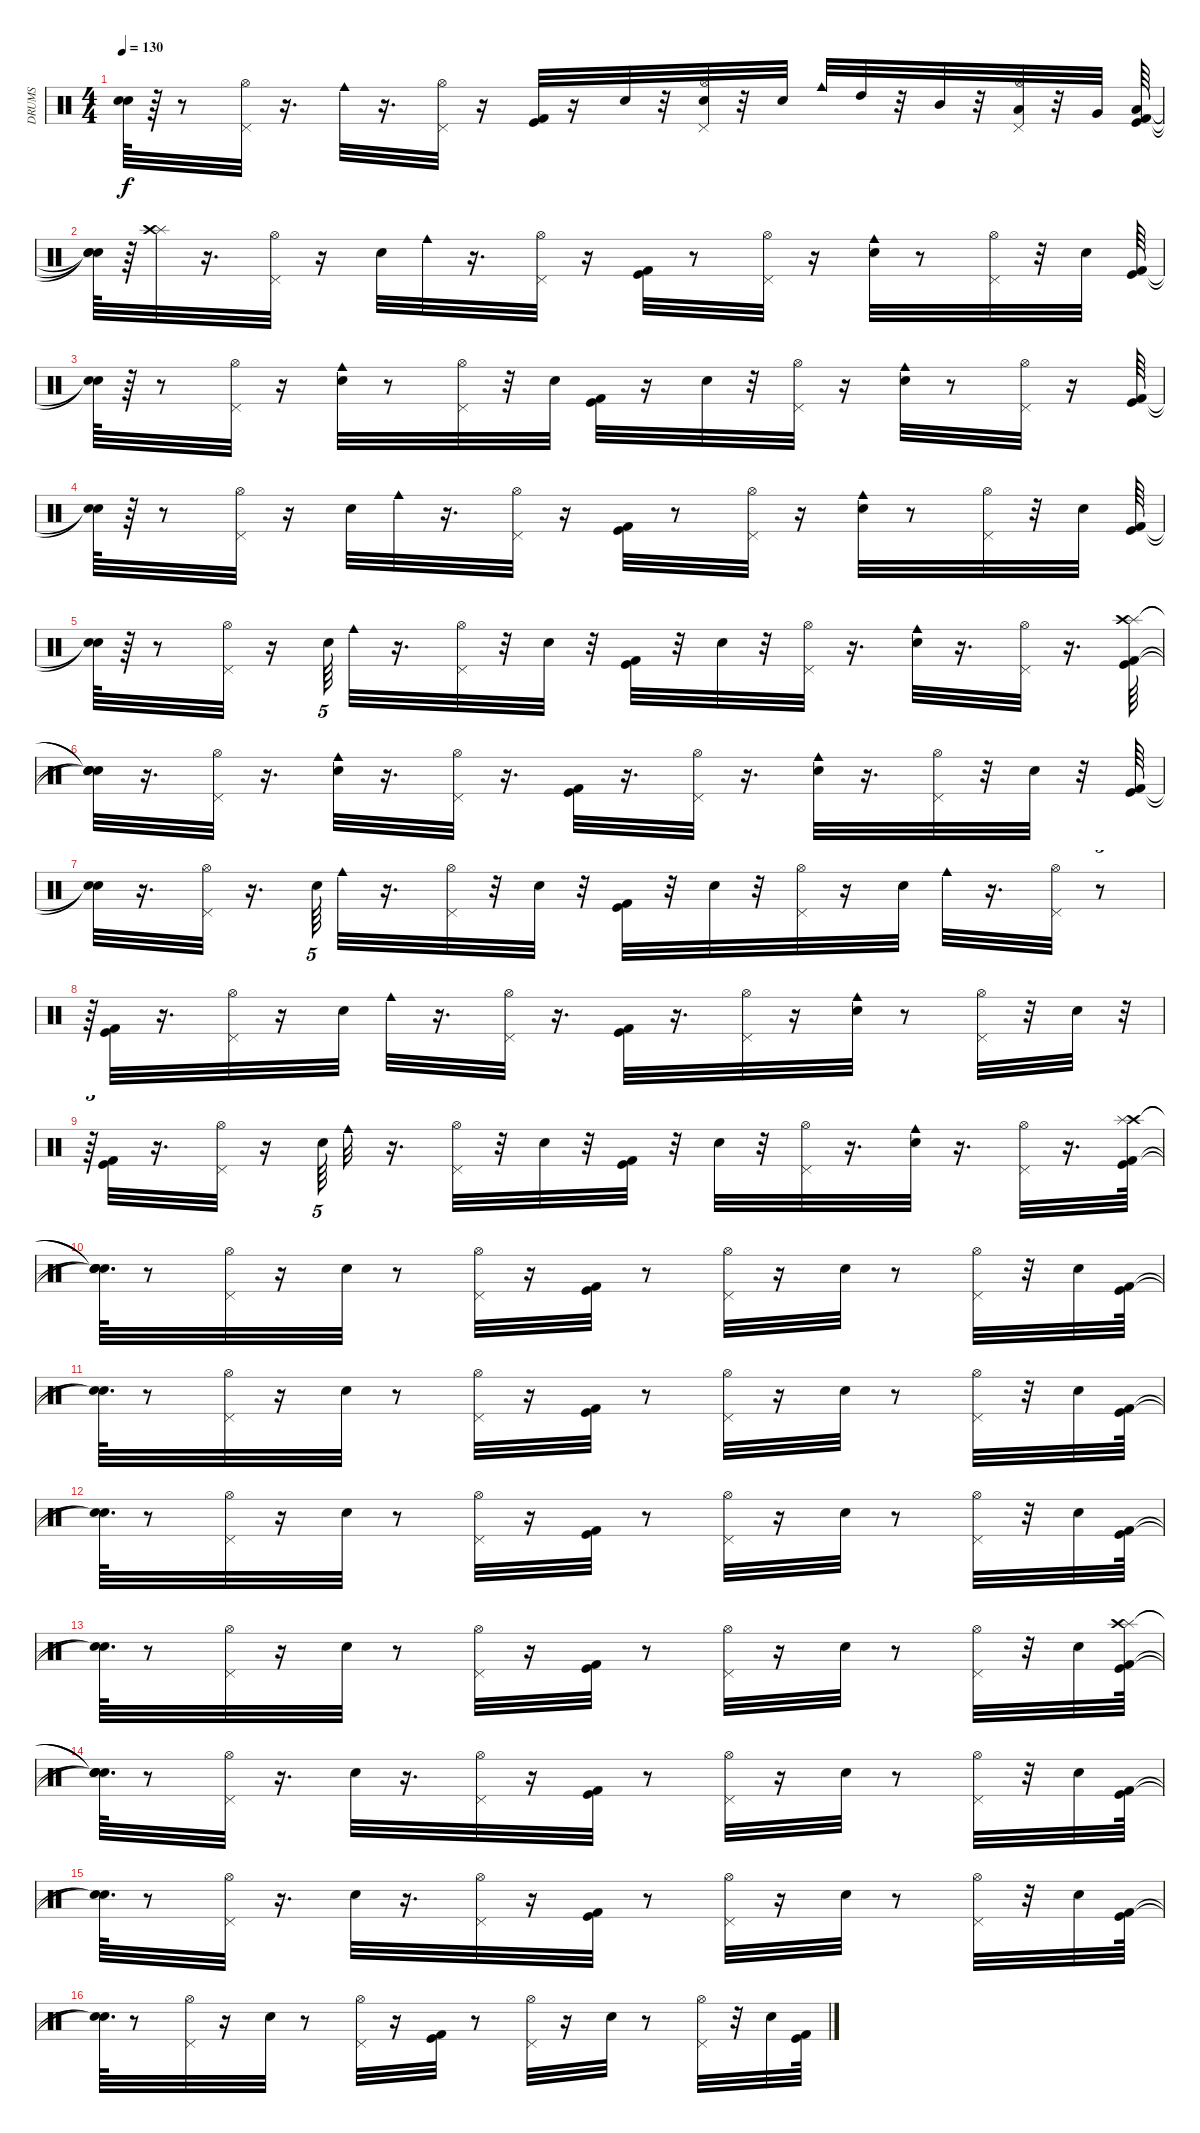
\track ("DRUMS" "DRUMS") {instrument percussion}
\staff {score}
\articulation defaults
\ts (4 4)
\tempo 130
\clef neutral
\ks c
("Snare (hit)"{t} "Snare (hit)"{t}).64{dy f} r.64 r.8 ("Pedal Hi-Hat (hit)" "Hi-Hat (open)").32 r.16{d} "Cowbell medium (hit)".32 r.16{d} ("Pedal Hi-Hat (hit)" "Hi-Hat (open)").32 r.16 ("Kick (hit) 2" "Kick (hit)").32 r.16 "Electric Snare (hit)".32 r.32 ("Pedal Hi-Hat (hit)" "Hi-Hat (open)" "Electric Snare (hit)").32 r.32 "Electric Snare (hit)".32 "Cowbell medium (hit)".32 "High Tom (hit)".32 r.32 "Mid Tom (hit)".32 r.32 ("Low Tom (hit)" "Pedal Hi-Hat (hit)" "Hi-Hat (open)").32 r.32 "Very Low Tom (hit)".32 ("Low Floor Tom (hit)" "Kick (hit)" "Kick (hit) 2").64 |
("Snare (hit)"{t} "Snare (hit)"{t} "Snare (hit)"{t}).64 r.64 ("Splash (hit)" "Crash high (hit)").32 r.16{d} ("Pedal Hi-Hat (hit)" "Hi-Hat (open)").32 r.16 "Electric Snare (hit)".32 "Cowbell medium (hit)".32 r.16{d} ("Pedal Hi-Hat (hit)" "Hi-Hat (open)").32 r.16 ("Kick (hit) 2" "Kick (hit)").32 r.8 ("Pedal Hi-Hat (hit)" "Hi-Hat (open)").32 r.16 ("Electric Snare (hit)" "Cowbell medium (hit)").32 r.8 ("Pedal Hi-Hat (hit)" "Hi-Hat (open)").32 r.32 "Electric Snare (hit)".32 ("Kick (hit)" "Kick (hit) 2").64 |
("Snare (hit)"{t} "Snare (hit)"{t}).64 r.64 r.8 ("Pedal Hi-Hat (hit)" "Hi-Hat (open)").32 r.16 ("Electric Snare (hit)" "Cowbell medium (hit)").32 r.8 ("Pedal Hi-Hat (hit)" "Hi-Hat (open)").32 r.32 "Electric Snare (hit)".32 ("Kick (hit) 2" "Kick (hit)").32 r.16 "Electric Snare (hit)".32 r.32 ("Pedal Hi-Hat (hit)" "Hi-Hat (open)").32 r.16 ("Electric Snare (hit)" "Cowbell medium (hit)").32 r.8 ("Pedal Hi-Hat (hit)" "Hi-Hat (open)").32 r.16 ("Kick (hit)" "Kick (hit) 2").64 |
("Snare (hit)"{t} "Snare (hit)"{t}).64 r.64 r.8 ("Pedal Hi-Hat (hit)" "Hi-Hat (open)").32 r.16 "Electric Snare (hit)".32 "Cowbell medium (hit)".32 r.16{d} ("Pedal Hi-Hat (hit)" "Hi-Hat (open)").32 r.16 ("Kick (hit) 2" "Kick (hit)").32 r.8 ("Pedal Hi-Hat (hit)" "Hi-Hat (open)").32 r.16 ("Electric Snare (hit)" "Cowbell medium (hit)").32 r.8 ("Pedal Hi-Hat (hit)" "Hi-Hat (open)").32 r.32 "Electric Snare (hit)".32 ("Kick (hit)" "Kick (hit) 2").64 |
("Snare (hit)"{t} "Snare (hit)"{t}).64 r.64 r.8 ("Pedal Hi-Hat (hit)" "Hi-Hat (open)").32 r.16 "Electric Snare (hit)".64{tu (5 4)} "Cowbell medium (hit)".32 r.16{d} ("Pedal Hi-Hat (hit)" "Hi-Hat (open)").32 r.32 "Electric Snare (hit)".32 r.32 ("Kick (hit) 2" "Kick (hit)").32 r.32 "Electric Snare (hit)".32 r.32 ("Pedal Hi-Hat (hit)" "Hi-Hat (open)").32 r.16{d} ("Electric Snare (hit)" "Cowbell medium (hit)").32 r.16{d} ("Pedal Hi-Hat (hit)" "Hi-Hat (open)").32 r.16{d} ("Splash (hit)" "Kick (hit)" "Kick (hit) 2" "Crash high (hit)").64 |
("Snare (hit)"{t} "Snare (hit)"{t} "Snare (hit)"{t} "Snare (hit)"{t}).32 r.16{d} ("Pedal Hi-Hat (hit)" "Hi-Hat (open)").32 r.16{d} ("Electric Snare (hit)" "Cowbell medium (hit)").32 r.16{d} ("Pedal Hi-Hat (hit)" "Hi-Hat (open)").32 r.16{d} ("Kick (hit) 2" "Kick (hit)").32 r.16{d} ("Pedal Hi-Hat (hit)" "Hi-Hat (open)").32 r.16{d} ("Electric Snare (hit)" "Cowbell medium (hit)").32 r.16{d} ("Pedal Hi-Hat (hit)" "Hi-Hat (open)").32 r.32 "Electric Snare (hit)".32 r.32 ("Kick (hit)" "Kick (hit) 2").64 |
("Snare (hit)"{t} "Snare (hit)"{t}).32 r.16{d} ("Pedal Hi-Hat (hit)" "Hi-Hat (open)").32 r.16{d} "Electric Snare (hit)".64{tu (5 4)} "Cowbell medium (hit)".32 r.16{d} ("Pedal Hi-Hat (hit)" "Hi-Hat (open)").32 r.32 "Electric Snare (hit)".32 r.32 ("Kick (hit) 2" "Kick (hit)").32 r.32 "Electric Snare (hit)".32 r.32 ("Pedal Hi-Hat (hit)" "Hi-Hat (open)").32 r.16 "Electric Snare (hit)".32 "Cowbell medium (hit)".32 r.16{d} ("Pedal Hi-Hat (hit)" "Hi-Hat (open)").32 r.8{tu (3 2)} |
r.64{tu (3 2)} ("Kick (hit)" "Kick (hit) 2").32 r.16{d} ("Pedal Hi-Hat (hit)" "Hi-Hat (open)").32 r.16 "Electric Snare (hit)".32 "Cowbell medium (hit)".32 r.16{d} ("Pedal Hi-Hat (hit)" "Hi-Hat (open)").32 r.16{d} ("Kick (hit) 2" "Kick (hit)").32 r.16{d} ("Pedal Hi-Hat (hit)" "Hi-Hat (open)").32 r.16 ("Electric Snare (hit)" "Cowbell medium (hit)").32 r.8 ("Pedal Hi-Hat (hit)" "Hi-Hat (open)").32 r.32 "Electric Snare (hit)".32 r.32{tu (3 2)} |
r.64{tu (3 2)} ("Kick (hit)" "Kick (hit) 2").32 r.16{d} ("Pedal Hi-Hat (hit)" "Hi-Hat (open)").32 r.16 "Electric Snare (hit)".64{tu (5 4)} "Cowbell medium (hit)".32 r.16{d} ("Pedal Hi-Hat (hit)" "Hi-Hat (open)").32 r.32 "Electric Snare (hit)".32 r.32 ("Kick (hit) 2" "Kick (hit)").32 r.32 "Electric Snare (hit)".32 r.32 ("Pedal Hi-Hat (hit)" "Hi-Hat (open)").32 r.16{d} ("Electric Snare (hit)" "Cowbell medium (hit)").32 r.16{d} ("Pedal Hi-Hat (hit)" "Hi-Hat (open)").32 r.16{d} ("Crash high (hit)" "Kick (hit)" "Kick (hit) 2" "Splash (hit)").64 |
("Snare (hit)"{t} "Snare (hit)"{t} "Snare (hit)"{t} "Snare (hit)"{t}).64{d} r.8 ("Pedal Hi-Hat (hit)" "Hi-Hat (open)").32 r.16 "Electric Snare (hit)".32 r.8 ("Pedal Hi-Hat (hit)" "Hi-Hat (open)").32 r.16 ("Kick (hit) 2" "Kick (hit)").32 r.8 ("Pedal Hi-Hat (hit)" "Hi-Hat (open)").32 r.16 "Electric Snare (hit)".32 r.8 ("Pedal Hi-Hat (hit)" "Hi-Hat (open)").32 r.32 "Electric Snare (hit)".32 ("Kick (hit)" "Kick (hit) 2").64 |
("Snare (hit)"{t} "Snare (hit)"{t}).64{d} r.8 ("Pedal Hi-Hat (hit)" "Hi-Hat (open)").32 r.16 "Electric Snare (hit)".32 r.8 ("Pedal Hi-Hat (hit)" "Hi-Hat (open)").32 r.16 ("Kick (hit) 2" "Kick (hit)").32 r.8 ("Pedal Hi-Hat (hit)" "Hi-Hat (open)").32 r.16 "Electric Snare (hit)".32 r.8 ("Pedal Hi-Hat (hit)" "Hi-Hat (open)").32 r.32 "Electric Snare (hit)".32 ("Kick (hit)" "Kick (hit) 2").64 |
("Snare (hit)"{t} "Snare (hit)"{t}).64{d} r.8 ("Pedal Hi-Hat (hit)" "Hi-Hat (open)").32 r.16 "Electric Snare (hit)".32 r.8 ("Pedal Hi-Hat (hit)" "Hi-Hat (open)").32 r.16 ("Kick (hit) 2" "Kick (hit)").32 r.8 ("Pedal Hi-Hat (hit)" "Hi-Hat (open)").32 r.16 "Electric Snare (hit)".32 r.8 ("Pedal Hi-Hat (hit)" "Hi-Hat (open)").32 r.32 "Electric Snare (hit)".32 ("Kick (hit)" "Kick (hit) 2").64 |
("Snare (hit)"{t} "Snare (hit)"{t}).64{d} r.8 ("Pedal Hi-Hat (hit)" "Hi-Hat (open)").32 r.16 "Electric Snare (hit)".32 r.8 ("Pedal Hi-Hat (hit)" "Hi-Hat (open)").32 r.16 ("Kick (hit) 2" "Kick (hit)").32 r.8 ("Pedal Hi-Hat (hit)" "Hi-Hat (open)").32 r.16 "Electric Snare (hit)".32 r.8 ("Pedal Hi-Hat (hit)" "Hi-Hat (open)").32 r.32 "Electric Snare (hit)".32 ("Splash (hit)" "Kick (hit)" "Kick (hit) 2" "Crash high (hit)").64 |
("Snare (hit)"{t} "Snare (hit)"{t} "Snare (hit)"{t} "Snare (hit)"{t}).64{d} r.8 ("Pedal Hi-Hat (hit)" "Hi-Hat (open)").32 r.16{d} "Electric Snare (hit)".32 r.16{d} ("Pedal Hi-Hat (hit)" "Hi-Hat (open)").32 r.16 ("Kick (hit) 2" "Kick (hit)").32 r.8 ("Pedal Hi-Hat (hit)" "Hi-Hat (open)").32 r.16 "Electric Snare (hit)".32 r.8 ("Pedal Hi-Hat (hit)" "Hi-Hat (open)").32 r.32 "Electric Snare (hit)".32 ("Kick (hit)" "Kick (hit) 2").64 |
("Snare (hit)"{t} "Snare (hit)"{t}).64{d} r.8 ("Pedal Hi-Hat (hit)" "Hi-Hat (open)").32 r.16{d} "Electric Snare (hit)".32 r.16{d} ("Pedal Hi-Hat (hit)" "Hi-Hat (open)").32 r.16 ("Kick (hit) 2" "Kick (hit)").32 r.8 ("Pedal Hi-Hat (hit)" "Hi-Hat (open)").32 r.16 "Electric Snare (hit)".32 r.8 ("Pedal Hi-Hat (hit)" "Hi-Hat (open)").32 r.32 "Electric Snare (hit)".32 ("Kick (hit)" "Kick (hit) 2").64 |
("Snare (hit)"{t} "Snare (hit)"{t}).64{d} r.8 ("Pedal Hi-Hat (hit)" "Hi-Hat (open)").32 r.16 "Electric Snare (hit)".32 r.8 ("Pedal Hi-Hat (hit)" "Hi-Hat (open)").32 r.16 ("Kick (hit) 2" "Kick (hit)").32 r.8 ("Pedal Hi-Hat (hit)" "Hi-Hat (open)").32 r.16 "Electric Snare (hit)".32 r.8 ("Pedal Hi-Hat (hit)" "Hi-Hat (open)").32 r.32 "Electric Snare (hit)".32 ("Kick (hit)" "Kick (hit) 2").64
